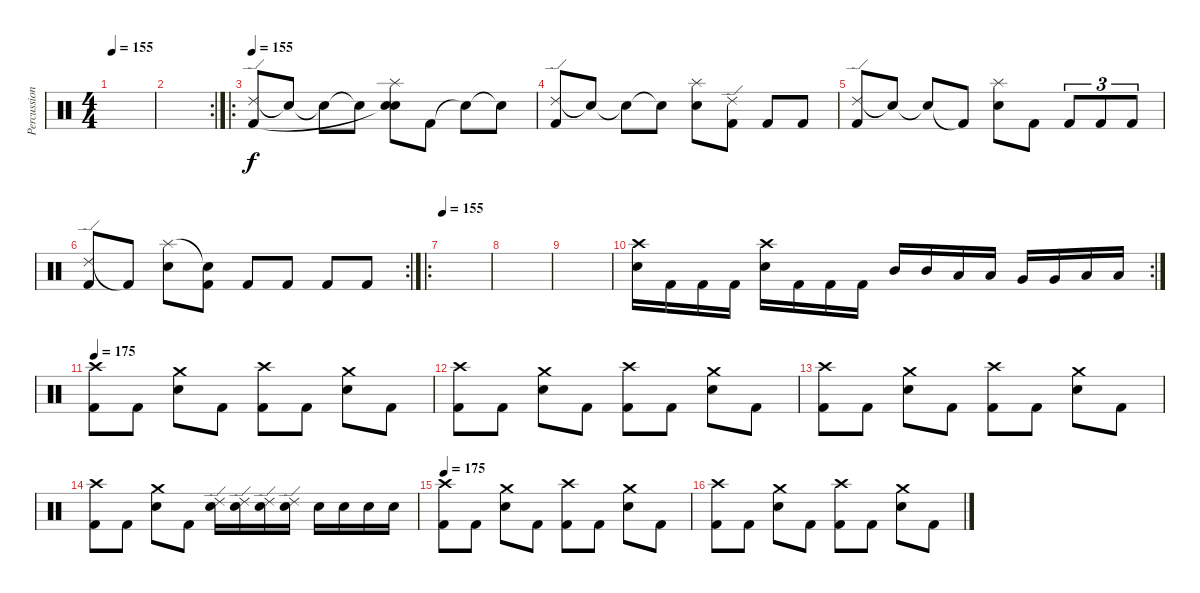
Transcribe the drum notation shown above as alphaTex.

\track ("Percussion" "Percussion") {instrument percussion}
\staff {score}
\articulation defaults
\ts (4 4)
\tempo 155
\clef neutral
\ks c
|
\rc 2
|
\ro
\tempo 155
("Ride (edge) 2" "Kick (hit) 2").8 "Snare (hit)"{t}.8 "Snare (hit)"{t}.8 "Snare (hit) 2"{t}.8 ("Splash (hit)" "Snare (hit)"{t} "Snare (hit) 2").8 "Kick (hit) 2".8 "Snare (hit)"{t}.8 "Snare (hit)"{t}.8 |
("Ride (edge) 2" "Kick (hit) 2").8 "Snare (hit) 2"{t}.8 "Snare (hit)"{t}.8 "Snare (hit)"{t}.8 ("Splash (hit)" "Snare (hit) 2").8 ("Ride (edge) 2" "Kick (hit) 2").8 "Kick (hit) 2".8 "Kick (hit) 2".8 |
("Ride (edge) 2" "Kick (hit) 2").8 "Snare (hit)"{t}.8 "Snare (hit) 2"{t}.8 "Kick (hit) 2"{t}.8 ("Splash (hit)" "Snare (hit) 2").8 "Kick (hit) 2".8 "Kick (hit) 2".8{tu (3 2)} "Kick (hit) 2".8{tu (3 2)} "Kick (hit) 2".8{tu (3 2)} |
\rc 2
("Ride (edge) 2" "Kick (hit) 2").8 "Kick (hit) 2"{t}.8 ("Splash (hit)" "Snare (hit) 2").8 ("Snare (hit)"{t} "Kick (hit) 2").8 "Kick (hit) 2".8 "Kick (hit) 2".8 "Kick (hit) 2".8 "Kick (hit) 2".8 |
\ro
\tempo 155
|
|
|
\rc 2
("Crash high (hit)" "Snare (hit) 2").16 "Kick (hit) 2".16 "Kick (hit) 2".16 "Kick (hit) 2".16 ("Crash high (hit)" "Snare (hit) 2").16 "Kick (hit) 2".16 "Kick (hit) 2".16 "Kick (hit) 2".16 "Mid Tom (hit)".16 "Mid Tom (hit)".16 "Low Tom (hit)".16 "Low Tom (hit)".16 "Very Low Tom (hit)".16 "Very Low Tom (hit)".16 "Low Floor Tom (hit)".16 "Low Floor Tom (hit)".16 |
\tempo 175
("Crash high (hit)" "Kick (hit) 2").8 "Kick (hit) 2".8 ("Crash medium (hit)" "Snare (hit) 2").8 "Kick (hit) 2".8 ("Crash high (hit)" "Kick (hit) 2").8 "Kick (hit) 2".8 ("Crash medium (hit)" "Snare (hit) 2").8 "Kick (hit) 2".8 |
("Crash high (hit)" "Kick (hit) 2").8 "Kick (hit) 2".8 ("Crash medium (hit)" "Snare (hit) 2").8 "Kick (hit) 2".8 ("Crash high (hit)" "Kick (hit) 2").8 "Kick (hit) 2".8 ("Crash medium (hit)" "Snare (hit) 2").8 "Kick (hit) 2".8 |
("Crash high (hit)" "Kick (hit) 2").8 "Kick (hit) 2".8 ("Crash medium (hit)" "Snare (hit) 2").8 "Kick (hit) 2".8 ("Crash high (hit)" "Kick (hit) 2").8 "Kick (hit) 2".8 ("Crash medium (hit)" "Snare (hit) 2").8 "Kick (hit) 2".8 |
("Crash high (hit)" "Kick (hit) 2").8 "Kick (hit) 2".8 ("Crash medium (hit)" "Snare (hit) 2").8 "Kick (hit) 2".8 ("Ride (edge) 2" "Snare (hit) 2").16 ("Ride (edge) 2" "Snare (hit) 2").16 ("Ride (edge) 2" "Snare (hit) 2").16 ("Ride (edge) 2" "Snare (hit) 2").16 "Electric Snare (hit)".16 "Electric Snare (hit)".16 "Electric Snare (hit)".16 "Electric Snare (hit)".16 |
\tempo 175
("Crash high (hit)" "Kick (hit) 2").8 "Kick (hit) 2".8 ("Crash medium (hit)" "Snare (hit) 2").8 "Kick (hit) 2".8 ("Crash high (hit)" "Kick (hit) 2").8 "Kick (hit) 2".8 ("Crash medium (hit)" "Snare (hit) 2").8 "Kick (hit) 2".8 |
("Crash high (hit)" "Kick (hit) 2").8 "Kick (hit) 2".8 ("Crash medium (hit)" "Snare (hit) 2").8 "Kick (hit) 2".8 ("Crash high (hit)" "Kick (hit) 2").8 "Kick (hit) 2".8 ("Crash medium (hit)" "Snare (hit) 2").8 "Kick (hit) 2".8
